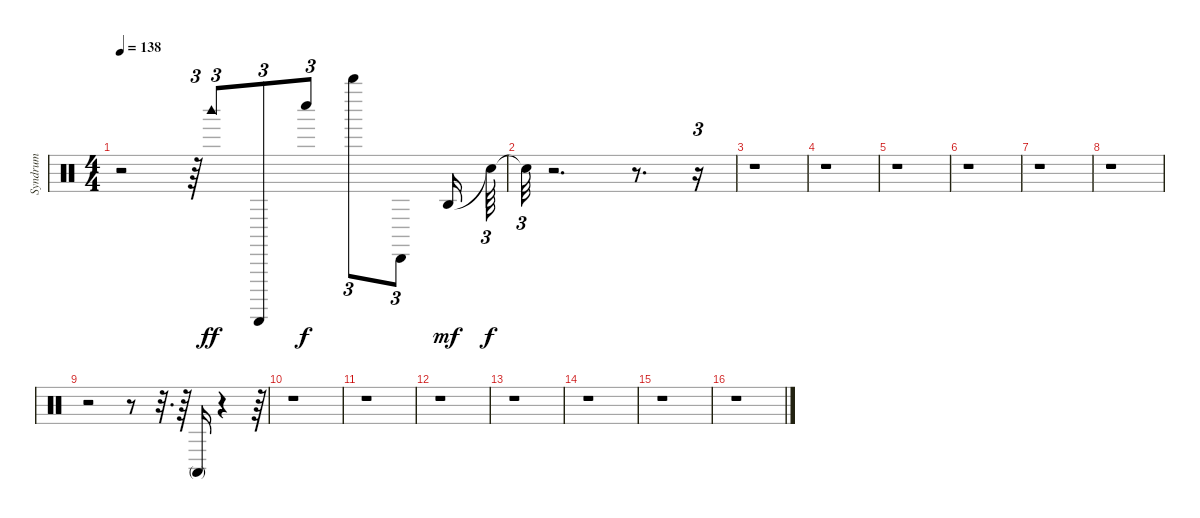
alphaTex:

\track ("Syndrum" "Syndrum") {instrument percussion}
\staff {score}
\articulation defaults
\ts (4 4)
\tempo 138
\clef neutral
\ks c
r.2{dy f} r.64{tu (3 2)} "Woodblock high (hit)".8{tu (3 2) dy ff} "Guiro (scrap-return)".8{tu (3 2)} "Whistle low (hit)".8{tu (3 2) dy f} "Whistle high (hit)".8{tu (3 2)} "Cabasa (hit)".8{tu (3 2)} "Agogo high (hit)".16{dy mf} "Snare (hit)"{t}.64{tu (3 2) dy f} |
"Snare (hit)"{t}.32{tu (3 2)} r.2{d} r.8{d} r.16{tu (3 2)} |
r.1 |
r.1 |
r.1 |
r.1 |
r.1 |
r.1 |
r.2 r.8 r.32{d} r.64 "Conga high (mute)".16 r.4 r.64{tu (3 2)} |
r.1 |
r.1 |
r.1 |
r.1 |
r.1 |
r.1 |
r.1
